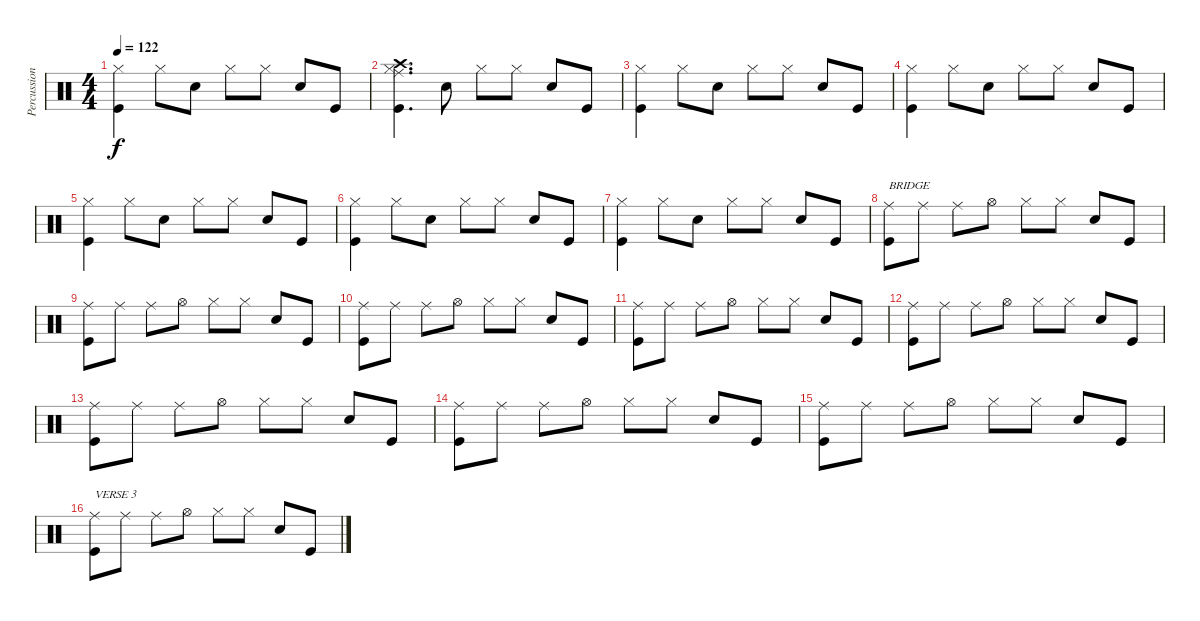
\track ("Percussioni" "Percussion") {instrument percussion}
\staff {score}
\articulation defaults
\ts (4 4)
\tempo 122
\clef neutral
\ks c
("Hi-Hat (closed)" "Kick (hit)").4{dy f} "Hi-Hat (closed)".8 "Snare (hit) 2".8 "Hi-Hat (closed)".8 "Hi-Hat (closed)".8 "Snare (hit) 2".8 "Kick (hit)".8 |
("Crash high (hit)" "Ride (middle)" "Hi-Hat (closed)" "Kick (hit)").4{d} "Snare (hit) 2".8 "Hi-Hat (closed)".8 "Hi-Hat (closed)".8 "Snare (hit) 2".8 "Kick (hit)".8 |
("Hi-Hat (closed)" "Kick (hit)").4 "Hi-Hat (closed)".8 "Snare (hit) 2".8 "Hi-Hat (closed)".8 "Hi-Hat (closed)".8 "Snare (hit) 2".8 "Kick (hit)".8 |
("Hi-Hat (closed)" "Kick (hit)").4 "Hi-Hat (closed)".8 "Snare (hit) 2".8 "Hi-Hat (closed)".8 "Hi-Hat (closed)".8 "Snare (hit) 2".8 "Kick (hit)".8 |
("Hi-Hat (closed)" "Kick (hit)").4 "Hi-Hat (closed)".8 "Snare (hit) 2".8 "Hi-Hat (closed)".8 "Hi-Hat (closed)".8 "Snare (hit) 2".8 "Kick (hit)".8 |
("Hi-Hat (closed)" "Kick (hit)").4 "Hi-Hat (closed)".8 "Snare (hit) 2".8 "Hi-Hat (closed)".8 "Hi-Hat (closed)".8 "Snare (hit) 2".8 "Kick (hit)".8 |
("Hi-Hat (closed)" "Kick (hit)").4 "Hi-Hat (closed)".8 "Snare (hit) 2".8 "Hi-Hat (closed)".8 "Hi-Hat (closed)".8 "Snare (hit) 2".8 "Kick (hit)".8 |
("Ride (middle)" "Kick (hit)").8{txt "BRIDGE"} "Ride (middle)".8 "Ride (middle)".8 "Hi-Hat (open)".8 "Hi-Hat (closed)".8 "Hi-Hat (closed)".8 "Snare (hit) 2".8 "Kick (hit)".8 |
("Ride (middle)" "Kick (hit)").8 "Ride (middle)".8 "Ride (middle)".8 "Hi-Hat (open)".8 "Hi-Hat (closed)".8 "Hi-Hat (closed)".8 "Snare (hit) 2".8 "Kick (hit)".8 |
("Ride (middle)" "Kick (hit)").8 "Ride (middle)".8 "Ride (middle)".8 "Hi-Hat (open)".8 "Hi-Hat (closed)".8 "Hi-Hat (closed)".8 "Snare (hit) 2".8 "Kick (hit)".8 |
("Ride (middle)" "Kick (hit)").8 "Ride (middle)".8 "Ride (middle)".8 "Hi-Hat (open)".8 "Hi-Hat (closed)".8 "Hi-Hat (closed)".8 "Snare (hit) 2".8 "Kick (hit)".8 |
("Ride (middle)" "Kick (hit)").8 "Ride (middle)".8 "Ride (middle)".8 "Hi-Hat (open)".8 "Hi-Hat (closed)".8 "Hi-Hat (closed)".8 "Snare (hit) 2".8 "Kick (hit)".8 |
("Ride (middle)" "Kick (hit)").8 "Ride (middle)".8 "Ride (middle)".8 "Hi-Hat (open)".8 "Hi-Hat (closed)".8 "Hi-Hat (closed)".8 "Snare (hit) 2".8 "Kick (hit)".8 |
("Ride (middle)" "Kick (hit)").8 "Ride (middle)".8 "Ride (middle)".8 "Hi-Hat (open)".8 "Hi-Hat (closed)".8 "Hi-Hat (closed)".8 "Snare (hit) 2".8 "Kick (hit)".8 |
("Ride (middle)" "Kick (hit)").8 "Ride (middle)".8 "Ride (middle)".8 "Hi-Hat (open)".8 "Hi-Hat (closed)".8 "Hi-Hat (closed)".8 "Snare (hit) 2".8 "Kick (hit)".8 |
("Ride (middle)" "Kick (hit)").8{txt "VERSE 3"} "Ride (middle)".8 "Ride (middle)".8 "Hi-Hat (open)".8 "Hi-Hat (closed)".8 "Hi-Hat (closed)".8 "Snare (hit) 2".8 "Kick (hit)".8
